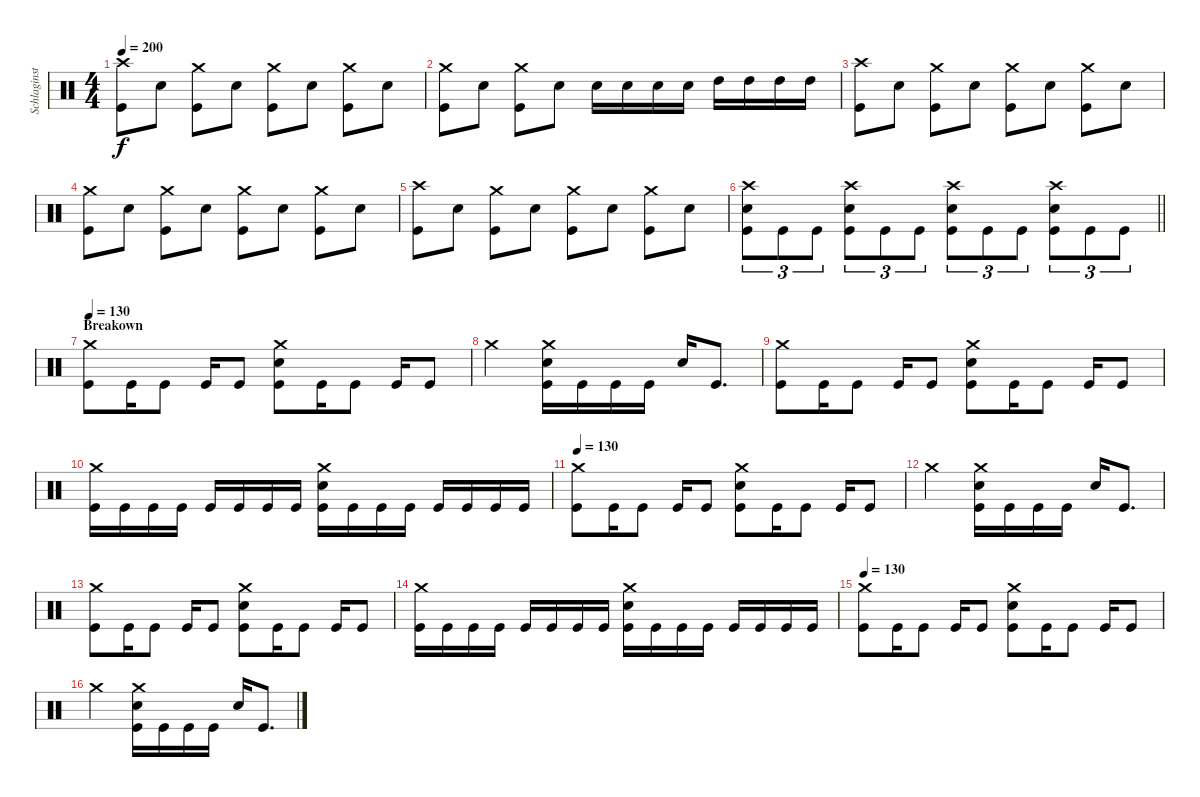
\track ("Schlaginstrumente - Auswahl" "Schlaginst") {instrument percussion}
\staff {score}
\articulation defaults
\ts (4 4)
\tempo 200
\clef neutral
\ks c
("Crash high (hit)" "Kick (hit)").8{dy f} "Electric Snare (hit)".8 ("Crash medium (hit)" "Kick (hit)").8 "Electric Snare (hit)".8 ("Crash medium (hit)" "Kick (hit)").8 "Electric Snare (hit)".8 ("Crash medium (hit)" "Kick (hit)").8 "Electric Snare (hit)".8 |
("Crash medium (hit)" "Kick (hit)").8 "Electric Snare (hit)".8 ("Crash medium (hit)" "Kick (hit)").8 "Electric Snare (hit)".8 "Electric Snare (hit)".16 "Electric Snare (hit)".16 "Electric Snare (hit)".16 "Electric Snare (hit)".16 "High Tom (hit)".16 "High Tom (hit)".16 "High Tom (hit)".16 "High Tom (hit)".16 |
("Crash high (hit)" "Kick (hit)").8 "Electric Snare (hit)".8 ("Crash medium (hit)" "Kick (hit)").8 "Electric Snare (hit)".8 ("Crash medium (hit)" "Kick (hit)").8 "Electric Snare (hit)".8 ("Crash medium (hit)" "Kick (hit)").8 "Electric Snare (hit)".8 |
("Crash medium (hit)" "Kick (hit)").8 "Electric Snare (hit)".8 ("Crash medium (hit)" "Kick (hit)").8 "Electric Snare (hit)".8 ("Crash medium (hit)" "Kick (hit)").8 "Electric Snare (hit)".8 ("Crash medium (hit)" "Kick (hit)").8 "Electric Snare (hit)".8 |
("Crash high (hit)" "Kick (hit)").8 "Electric Snare (hit)".8 ("Crash medium (hit)" "Kick (hit)").8 "Electric Snare (hit)".8 ("Crash medium (hit)" "Kick (hit)").8 "Electric Snare (hit)".8 ("Crash medium (hit)" "Kick (hit)").8 "Electric Snare (hit)".8 |
\barLineRight lightlight
("Crash high (hit)" "Electric Snare (hit)" "Kick (hit)").8{tu (3 2)} "Kick (hit)".8{tu (3 2)} "Kick (hit)".8{tu (3 2)} ("Crash high (hit)" "Electric Snare (hit)" "Kick (hit)").8{tu (3 2)} "Kick (hit)".8{tu (3 2)} "Kick (hit)".8{tu (3 2)} ("Crash high (hit)" "Electric Snare (hit)" "Kick (hit)").8{tu (3 2)} "Kick (hit)".8{tu (3 2)} "Kick (hit)".8{tu (3 2)} ("Crash high (hit)" "Electric Snare (hit)" "Kick (hit)").8{tu (3 2)} "Kick (hit)".8{tu (3 2)} "Kick (hit)".8{tu (3 2)} |
\section ("" "Breakown")
\tempo 130
("Crash medium (hit)" "Kick (hit)").8 "Kick (hit)".16 "Kick (hit)".8 "Kick (hit)".16 "Kick (hit)".8 ("Crash medium (hit)" "Electric Snare (hit)" "Kick (hit)").8 "Kick (hit)".16 "Kick (hit)".8 "Kick (hit)".16 "Kick (hit)".8 |
"Crash medium (hit)".2 ("Crash medium (hit)" "Electric Snare (hit)" "Kick (hit)").16 "Kick (hit)".16 "Kick (hit)".16 "Kick (hit)".16 "Electric Snare (hit)".16 "Kick (hit)".8{d} |
("Crash medium (hit)" "Kick (hit)").8 "Kick (hit)".16 "Kick (hit)".8 "Kick (hit)".16 "Kick (hit)".8 ("Crash medium (hit)" "Electric Snare (hit)" "Kick (hit)").8 "Kick (hit)".16 "Kick (hit)".8 "Kick (hit)".16 "Kick (hit)".8 |
("Crash medium (hit)" "Kick (hit)").16 "Kick (hit)".16 "Kick (hit)".16 "Kick (hit)".16 "Kick (hit)".16 "Kick (hit)".16 "Kick (hit)".16 "Kick (hit)".16 ("Crash medium (hit)" "Electric Snare (hit)" "Kick (hit)").16 "Kick (hit)".16 "Kick (hit)".16 "Kick (hit)".16 "Kick (hit)".16 "Kick (hit)".16 "Kick (hit)".16 "Kick (hit)".16 |
\tempo 130
("Crash medium (hit)" "Kick (hit)").8 "Kick (hit)".16 "Kick (hit)".8 "Kick (hit)".16 "Kick (hit)".8 ("Crash medium (hit)" "Electric Snare (hit)" "Kick (hit)").8 "Kick (hit)".16 "Kick (hit)".8 "Kick (hit)".16 "Kick (hit)".8 |
"Crash medium (hit)".2 ("Crash medium (hit)" "Electric Snare (hit)" "Kick (hit)").16 "Kick (hit)".16 "Kick (hit)".16 "Kick (hit)".16 "Electric Snare (hit)".16 "Kick (hit)".8{d} |
("Crash medium (hit)" "Kick (hit)").8 "Kick (hit)".16 "Kick (hit)".8 "Kick (hit)".16 "Kick (hit)".8 ("Crash medium (hit)" "Electric Snare (hit)" "Kick (hit)").8 "Kick (hit)".16 "Kick (hit)".8 "Kick (hit)".16 "Kick (hit)".8 |
("Crash medium (hit)" "Kick (hit)").16 "Kick (hit)".16 "Kick (hit)".16 "Kick (hit)".16 "Kick (hit)".16 "Kick (hit)".16 "Kick (hit)".16 "Kick (hit)".16 ("Crash medium (hit)" "Electric Snare (hit)" "Kick (hit)").16 "Kick (hit)".16 "Kick (hit)".16 "Kick (hit)".16 "Kick (hit)".16 "Kick (hit)".16 "Kick (hit)".16 "Kick (hit)".16 |
\tempo 130
("Crash medium (hit)" "Kick (hit)").8 "Kick (hit)".16 "Kick (hit)".8 "Kick (hit)".16 "Kick (hit)".8 ("Crash medium (hit)" "Electric Snare (hit)" "Kick (hit)").8 "Kick (hit)".16 "Kick (hit)".8 "Kick (hit)".16 "Kick (hit)".8 |
"Crash medium (hit)".2 ("Crash medium (hit)" "Electric Snare (hit)" "Kick (hit)").16 "Kick (hit)".16 "Kick (hit)".16 "Kick (hit)".16 "Electric Snare (hit)".16 "Kick (hit)".8{d}
